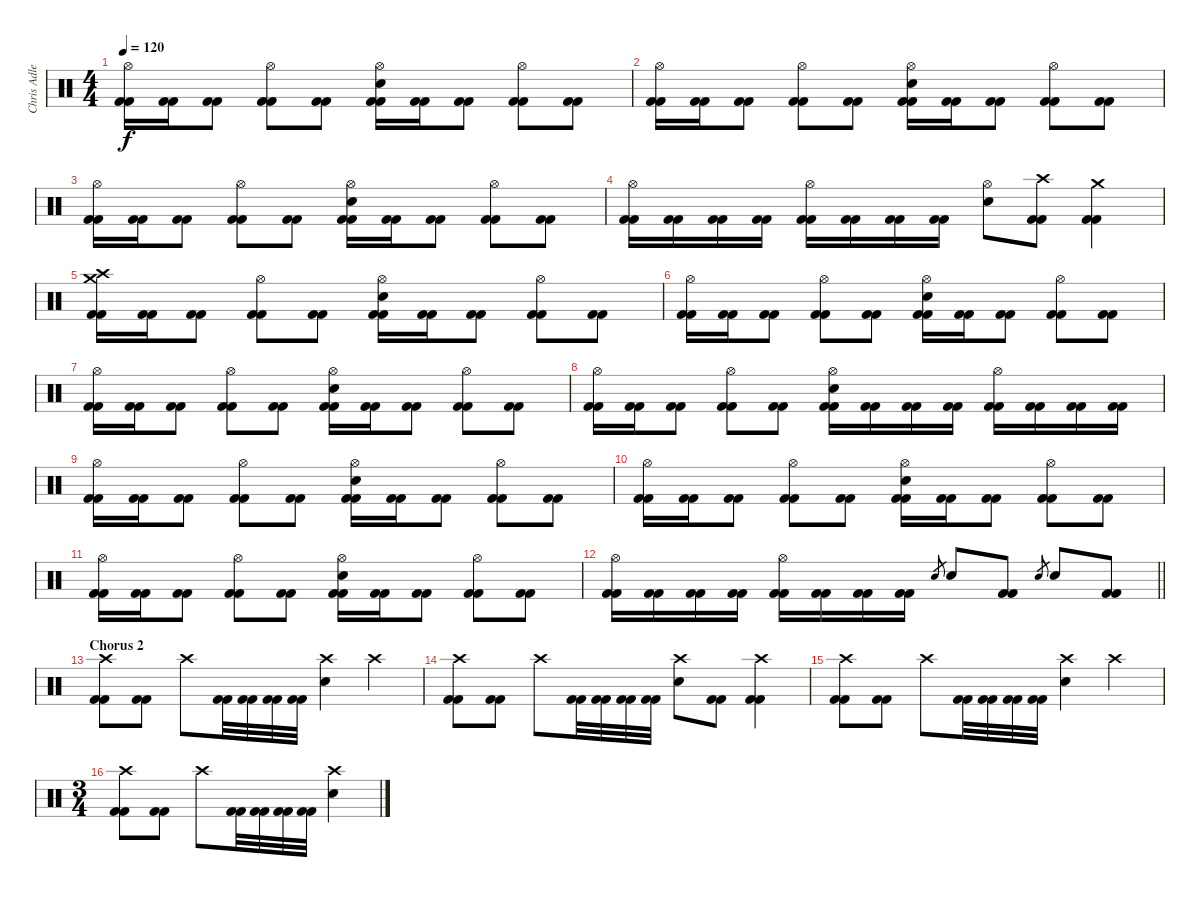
\track ("Chris Adler" "Chris Adle") {instrument percussion}
\staff {score}
\articulation defaults
\ts (4 4)
\tempo 120
\clef neutral
\ks c
("Hi-Hat (open)" "Kick (hit) 2" "Kick (hit) 2").16{dy f} ("Kick (hit) 2" "Kick (hit) 2").16 ("Kick (hit) 2" "Kick (hit) 2").8 ("Hi-Hat (open)" "Kick (hit) 2" "Kick (hit) 2").8 ("Kick (hit) 2" "Kick (hit) 2").8 ("Hi-Hat (open)" "Electric Snare (hit)" "Kick (hit) 2" "Kick (hit) 2").16 ("Kick (hit) 2" "Kick (hit) 2").16 ("Kick (hit) 2" "Kick (hit) 2").8 ("Hi-Hat (open)" "Kick (hit) 2" "Kick (hit) 2").8 ("Kick (hit) 2" "Kick (hit) 2").8 |
("Hi-Hat (open)" "Kick (hit) 2" "Kick (hit) 2").16 ("Kick (hit) 2" "Kick (hit) 2").16 ("Kick (hit) 2" "Kick (hit) 2").8 ("Hi-Hat (open)" "Kick (hit) 2" "Kick (hit) 2").8 ("Kick (hit) 2" "Kick (hit) 2").8 ("Hi-Hat (open)" "Electric Snare (hit)" "Kick (hit) 2" "Kick (hit) 2").16 ("Kick (hit) 2" "Kick (hit) 2").16 ("Kick (hit) 2" "Kick (hit) 2").8 ("Hi-Hat (open)" "Kick (hit) 2" "Kick (hit) 2").8 ("Kick (hit) 2" "Kick (hit) 2").8 |
("Hi-Hat (open)" "Kick (hit) 2" "Kick (hit) 2").16 ("Kick (hit) 2" "Kick (hit) 2").16 ("Kick (hit) 2" "Kick (hit) 2").8 ("Hi-Hat (open)" "Kick (hit) 2" "Kick (hit) 2").8 ("Kick (hit) 2" "Kick (hit) 2").8 ("Hi-Hat (open)" "Electric Snare (hit)" "Kick (hit) 2" "Kick (hit) 2").16 ("Kick (hit) 2" "Kick (hit) 2").16 ("Kick (hit) 2" "Kick (hit) 2").8 ("Hi-Hat (open)" "Kick (hit) 2" "Kick (hit) 2").8 ("Kick (hit) 2" "Kick (hit) 2").8 |
("Hi-Hat (open)" "Kick (hit) 2" "Kick (hit) 2").16 ("Kick (hit) 2" "Kick (hit) 2").16 ("Kick (hit) 2" "Kick (hit) 2").16 ("Kick (hit) 2" "Kick (hit) 2").16 ("Hi-Hat (open)" "Kick (hit) 2" "Kick (hit) 2").16 ("Kick (hit) 2" "Kick (hit) 2").16 ("Kick (hit) 2" "Kick (hit) 2").16 ("Kick (hit) 2" "Kick (hit) 2").16 ("Hi-Hat (open)" "Electric Snare (hit)").8 ("Crash high (hit)" "Kick (hit) 2" "Kick (hit) 2").8 ("Crash medium (hit)" "Kick (hit) 2" "Kick (hit) 2").4 |
("Crash medium (hit)" "Crash high (hit)" "Kick (hit) 2" "Kick (hit) 2").16 ("Kick (hit) 2" "Kick (hit) 2").16 ("Kick (hit) 2" "Kick (hit) 2").8 ("Hi-Hat (open)" "Kick (hit) 2" "Kick (hit) 2").8 ("Kick (hit) 2" "Kick (hit) 2").8 ("Hi-Hat (open)" "Electric Snare (hit)" "Kick (hit) 2" "Kick (hit) 2").16 ("Kick (hit) 2" "Kick (hit) 2").16 ("Kick (hit) 2" "Kick (hit) 2").8 ("Hi-Hat (open)" "Kick (hit) 2" "Kick (hit) 2").8 ("Kick (hit) 2" "Kick (hit) 2").8 |
("Hi-Hat (open)" "Kick (hit) 2" "Kick (hit) 2").16 ("Kick (hit) 2" "Kick (hit) 2").16 ("Kick (hit) 2" "Kick (hit) 2").8 ("Hi-Hat (open)" "Kick (hit) 2" "Kick (hit) 2").8 ("Kick (hit) 2" "Kick (hit) 2").8 ("Hi-Hat (open)" "Electric Snare (hit)" "Kick (hit) 2" "Kick (hit) 2").16 ("Kick (hit) 2" "Kick (hit) 2").16 ("Kick (hit) 2" "Kick (hit) 2").8 ("Hi-Hat (open)" "Kick (hit) 2" "Kick (hit) 2").8 ("Kick (hit) 2" "Kick (hit) 2").8 |
("Hi-Hat (open)" "Kick (hit) 2" "Kick (hit) 2").16 ("Kick (hit) 2" "Kick (hit) 2").16 ("Kick (hit) 2" "Kick (hit) 2").8 ("Hi-Hat (open)" "Kick (hit) 2" "Kick (hit) 2").8 ("Kick (hit) 2" "Kick (hit) 2").8 ("Hi-Hat (open)" "Electric Snare (hit)" "Kick (hit) 2" "Kick (hit) 2").16 ("Kick (hit) 2" "Kick (hit) 2").16 ("Kick (hit) 2" "Kick (hit) 2").8 ("Hi-Hat (open)" "Kick (hit) 2" "Kick (hit) 2").8 ("Kick (hit) 2" "Kick (hit) 2").8 |
("Hi-Hat (open)" "Kick (hit) 2" "Kick (hit) 2").16 ("Kick (hit) 2" "Kick (hit) 2").16 ("Kick (hit) 2" "Kick (hit) 2").8 ("Hi-Hat (open)" "Kick (hit) 2" "Kick (hit) 2").8 ("Kick (hit) 2" "Kick (hit) 2").8 ("Hi-Hat (open)" "Electric Snare (hit)" "Kick (hit) 2" "Kick (hit) 2").16 ("Kick (hit) 2" "Kick (hit) 2").16 ("Kick (hit) 2" "Kick (hit) 2").16 ("Kick (hit) 2" "Kick (hit) 2").16 ("Hi-Hat (open)" "Kick (hit) 2" "Kick (hit) 2").16 ("Kick (hit) 2" "Kick (hit) 2").16 ("Kick (hit) 2" "Kick (hit) 2").16 ("Kick (hit) 2" "Kick (hit) 2").16 |
("Hi-Hat (open)" "Kick (hit) 2" "Kick (hit) 2").16 ("Kick (hit) 2" "Kick (hit) 2").16 ("Kick (hit) 2" "Kick (hit) 2").8 ("Hi-Hat (open)" "Kick (hit) 2" "Kick (hit) 2").8 ("Kick (hit) 2" "Kick (hit) 2").8 ("Hi-Hat (open)" "Electric Snare (hit)" "Kick (hit) 2" "Kick (hit) 2").16 ("Kick (hit) 2" "Kick (hit) 2").16 ("Kick (hit) 2" "Kick (hit) 2").8 ("Hi-Hat (open)" "Kick (hit) 2" "Kick (hit) 2").8 ("Kick (hit) 2" "Kick (hit) 2").8 |
("Hi-Hat (open)" "Kick (hit) 2" "Kick (hit) 2").16 ("Kick (hit) 2" "Kick (hit) 2").16 ("Kick (hit) 2" "Kick (hit) 2").8 ("Hi-Hat (open)" "Kick (hit) 2" "Kick (hit) 2").8 ("Kick (hit) 2" "Kick (hit) 2").8 ("Hi-Hat (open)" "Electric Snare (hit)" "Kick (hit) 2" "Kick (hit) 2").16 ("Kick (hit) 2" "Kick (hit) 2").16 ("Kick (hit) 2" "Kick (hit) 2").8 ("Hi-Hat (open)" "Kick (hit) 2" "Kick (hit) 2").8 ("Kick (hit) 2" "Kick (hit) 2").8 |
("Hi-Hat (open)" "Kick (hit) 2" "Kick (hit) 2").16 ("Kick (hit) 2" "Kick (hit) 2").16 ("Kick (hit) 2" "Kick (hit) 2").8 ("Hi-Hat (open)" "Kick (hit) 2" "Kick (hit) 2").8 ("Kick (hit) 2" "Kick (hit) 2").8 ("Hi-Hat (open)" "Electric Snare (hit)" "Kick (hit) 2" "Kick (hit) 2").16 ("Kick (hit) 2" "Kick (hit) 2").16 ("Kick (hit) 2" "Kick (hit) 2").8 ("Hi-Hat (open)" "Kick (hit) 2" "Kick (hit) 2").8 ("Kick (hit) 2" "Kick (hit) 2").8 |
\barLineRight lightlight
("Hi-Hat (open)" "Kick (hit) 2" "Kick (hit) 2").16 ("Kick (hit) 2" "Kick (hit) 2").16 ("Kick (hit) 2" "Kick (hit) 2").16 ("Kick (hit) 2" "Kick (hit) 2").16 ("Hi-Hat (open)" "Kick (hit) 2" "Kick (hit) 2").16 ("Kick (hit) 2" "Kick (hit) 2").16 ("Kick (hit) 2" "Kick (hit) 2").16 ("Kick (hit) 2" "Kick (hit) 2").16 "Electric Snare (hit)".8{gr} "Electric Snare (hit)".8 ("Kick (hit) 2" "Kick (hit) 2").8 "Electric Snare (hit)".8{gr} "Electric Snare (hit)".8 ("Kick (hit) 2" "Kick (hit) 2").8 |
\section ("" "Chorus 2")
("Crash high (hit)" "Kick (hit) 2" "Kick (hit) 2").8 ("Kick (hit) 2" "Kick (hit) 2").8 "Crash high (hit)".8 ("Kick (hit) 2" "Kick (hit) 2").32 ("Kick (hit) 2" "Kick (hit) 2").32 ("Kick (hit) 2" "Kick (hit) 2").32 ("Kick (hit) 2" "Kick (hit) 2").32 ("Crash high (hit)" "Electric Snare (hit)").4 "Crash high (hit)".4 |
("Crash high (hit)" "Kick (hit) 2" "Kick (hit) 2").8 ("Kick (hit) 2" "Kick (hit) 2").8 "Crash high (hit)".8 ("Kick (hit) 2" "Kick (hit) 2").32 ("Kick (hit) 2" "Kick (hit) 2").32 ("Kick (hit) 2" "Kick (hit) 2").32 ("Kick (hit) 2" "Kick (hit) 2").32 ("Crash high (hit)" "Electric Snare (hit)").8 ("Kick (hit) 2" "Kick (hit) 2").8 ("Crash high (hit)" "Kick (hit) 2" "Kick (hit) 2").4 |
("Crash high (hit)" "Kick (hit) 2" "Kick (hit) 2").8 ("Kick (hit) 2" "Kick (hit) 2").8 "Crash high (hit)".8 ("Kick (hit) 2" "Kick (hit) 2").32 ("Kick (hit) 2" "Kick (hit) 2").32 ("Kick (hit) 2" "Kick (hit) 2").32 ("Kick (hit) 2" "Kick (hit) 2").32 ("Crash high (hit)" "Electric Snare (hit)").4 "Crash high (hit)".4 |
\ts (3 4)
("Crash high (hit)" "Kick (hit) 2" "Kick (hit) 2").8 ("Kick (hit) 2" "Kick (hit) 2").8 "Crash high (hit)".8 ("Kick (hit) 2" "Kick (hit) 2").32 ("Kick (hit) 2" "Kick (hit) 2").32 ("Kick (hit) 2" "Kick (hit) 2").32 ("Kick (hit) 2" "Kick (hit) 2").32 ("Crash high (hit)" "Electric Snare (hit)").4
